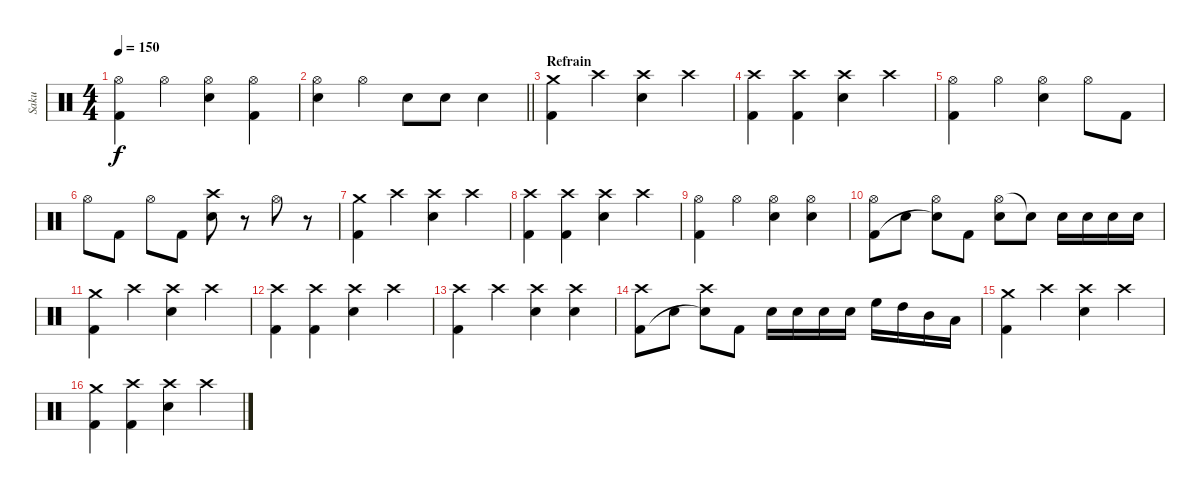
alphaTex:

\track ("Saku" "Saku") {instrument percussion}
\staff {score}
\articulation defaults
\ts (4 4)
\tempo 150
\clef neutral
\ks c
("Hi-Hat (open)" "Kick (hit) 2").4{dy f} "Hi-Hat (open)".4 ("Hi-Hat (open)" "Electric Snare (hit)").4 ("Hi-Hat (open)" "Kick (hit) 2").4 |
\barLineRight lightlight
("Hi-Hat (open)" "Electric Snare (hit)").4 "Hi-Hat (open)".4 "Electric Snare (hit)".8 "Electric Snare (hit)".8 "Electric Snare (hit)".4 |
\section ("" "Refrain")
("Crash medium (hit)" "Kick (hit) 2").4 "Crash high (hit)".4 ("Crash high (hit)" "Electric Snare (hit)").4 "Crash high (hit)".4 |
("Crash high (hit)" "Kick (hit) 2").4 ("Crash high (hit)" "Kick (hit) 2").4 ("Crash high (hit)" "Electric Snare (hit)").4 "Crash high (hit)".4 |
("Hi-Hat (open)" "Kick (hit) 2").4 "Hi-Hat (open)".4 ("Hi-Hat (open)" "Electric Snare (hit)").4 "Hi-Hat (open)".8 "Kick (hit) 2".8 |
"Hi-Hat (open)".8 "Kick (hit) 2".8 "Hi-Hat (open)".8 "Kick (hit) 2".8 ("Crash high (hit)" "Electric Snare (hit)").8 r.8 "Hi-Hat (open)".8 r.8 |
("Crash medium (hit)" "Kick (hit) 2").4 "Crash high (hit)".4 ("Crash high (hit)" "Electric Snare (hit)").4 "Crash high (hit)".4 |
("Crash high (hit)" "Kick (hit) 2").4 ("Crash high (hit)" "Kick (hit) 2").4 ("Crash high (hit)" "Electric Snare (hit)").4 "Crash high (hit)".4 |
("Hi-Hat (open)" "Kick (hit) 2").4 "Hi-Hat (open)".4 ("Hi-Hat (open)" "Electric Snare (hit)").4 ("Hi-Hat (open)" "Electric Snare (hit)").4 |
("Hi-Hat (open)" "Kick (hit) 2").8 "Electric Snare (hit)".8 ("Hi-Hat (open)" "Electric Snare (hit)"{t}).8 "Kick (hit) 2".8 ("Hi-Hat (open)" "Electric Snare (hit)").8 "Electric Snare (hit)"{t}.8 "Electric Snare (hit)".16 "Electric Snare (hit)".16 "Electric Snare (hit)".16 "Electric Snare (hit)".16 |
("Crash medium (hit)" "Kick (hit) 2").4 "Crash high (hit)".4 ("Crash high (hit)" "Electric Snare (hit)").4 "Crash high (hit)".4 |
("Crash high (hit)" "Kick (hit) 2").4 ("Crash high (hit)" "Kick (hit) 2").4 ("Crash high (hit)" "Electric Snare (hit)").4 "Crash high (hit)".4 |
("Crash high (hit)" "Kick (hit) 2").4 "Crash high (hit)".4 ("Crash high (hit)" "Electric Snare (hit)").4 ("Crash high (hit)" "Electric Snare (hit)").4 |
("Crash high (hit)" "Kick (hit) 2").8 "Electric Snare (hit)".8 ("Crash high (hit)" "Snare (hit)"{t}).8 "Kick (hit) 2".8 "Electric Snare (hit)".16 "Electric Snare (hit)".16 "Electric Snare (hit)".16 "Electric Snare (hit)".16 "High Floor Tom (hit)".16 "High Tom (hit)".16 "Mid Tom (hit)".16 "Low Tom (hit)".16 |
("Crash medium (hit)" "Kick (hit) 2").4 "Crash high (hit)".4 ("Crash high (hit)" "Electric Snare (hit)").4 "Crash high (hit)".4 |
("Crash medium (hit)" "Kick (hit) 2").4 ("Crash high (hit)" "Kick (hit) 2").4 ("Crash high (hit)" "Electric Snare (hit)").4 "Crash high (hit)".4
